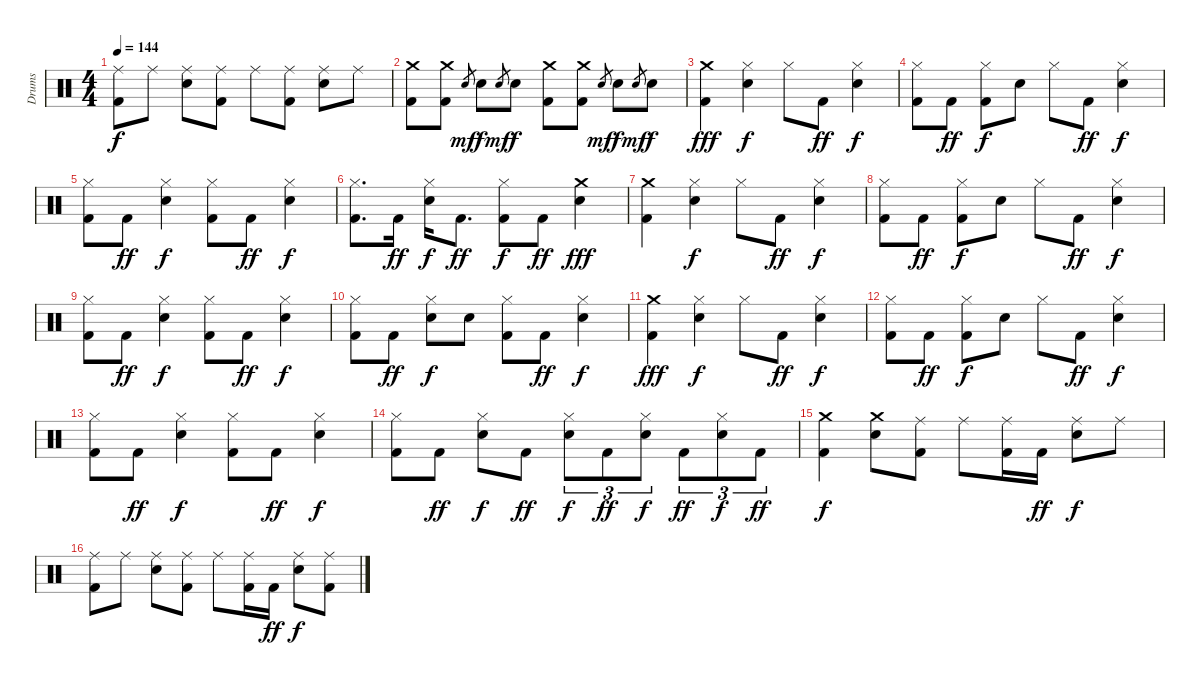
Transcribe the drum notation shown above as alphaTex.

\bracketExtendMode groupsimilarinstruments
\otherSystemsTrackNameOrientation horizontal
\track ("Drumkit" "Drums") {instrument percussion}
\staff {score}
\articulation defaults
\ts (4 4)
\tempo 144
\clef neutral
\ks c
("Ride (middle)" "Kick (hit) 2").8{dy f beam Down} "Ride (middle)".8{beam Down} ("Ride (middle)" "Snare (hit) 2").8{beam Down} ("Ride (middle)" "Kick (hit) 2").8{beam Down} "Ride (middle)".8{beam Down} ("Ride (middle)" "Kick (hit) 2").8{beam Down} ("Ride (middle)" "Snare (hit) 2").8{beam Down} "Ride (middle)".8{beam Down} |
("Crash medium (hit)" "Kick (hit) 2").8{beam Down} ("Crash medium (hit)" "Kick (hit) 2").8{beam Down} "Snare (hit) 2".8{gr dy mf beam Up} "Snare (hit) 2".8{dy f beam Down} "Snare (hit) 2".8{gr dy mf beam Up} "Snare (hit) 2".8{dy f beam Down} ("Crash medium (hit)" "Kick (hit) 2").8{beam Down} ("Crash medium (hit)" "Kick (hit) 2").8{beam Down} "Snare (hit) 2".8{gr dy mf beam Up} "Snare (hit) 2".8{dy f beam Down} "Snare (hit) 2".8{gr dy mf beam Up} "Snare (hit) 2".8{dy f beam Down} |
("Crash medium (hit)" "Kick (hit) 2").4{dy fff beam Down} ("Hi-Hat (closed)" "Snare (hit) 2").4{dy f beam Down} "Hi-Hat (closed)".8{beam Down} "Kick (hit) 2".8{dy ff beam Down} ("Hi-Hat (closed)" "Snare (hit) 2").4{dy f beam Down} |
("Hi-Hat (closed)" "Kick (hit) 2").8{beam Down} "Kick (hit) 2".8{dy ff beam Down} ("Hi-Hat (closed)" "Kick (hit) 2").8{dy f beam Down} "Snare (hit) 2".8{beam Down} "Hi-Hat (closed)".8{beam Down} "Kick (hit) 2".8{dy ff beam Down} ("Hi-Hat (closed)" "Snare (hit) 2").4{dy f beam Down} |
("Hi-Hat (closed)" "Kick (hit) 2").8{beam Down} "Kick (hit) 2".8{dy ff beam Down} ("Hi-Hat (closed)" "Snare (hit) 2").4{dy f beam Down} ("Hi-Hat (closed)" "Kick (hit) 2").8{beam Down} "Kick (hit) 2".8{dy ff beam Down} ("Hi-Hat (closed)" "Snare (hit) 2").4{dy f beam Down} |
("Hi-Hat (closed)" "Kick (hit) 2").8{d beam Down} "Kick (hit) 2".16{dy ff beam Down} ("Hi-Hat (closed)" "Snare (hit) 2").16{dy f beam Down} "Kick (hit) 2".8{d dy ff beam Down} ("Hi-Hat (closed)" "Kick (hit) 2").8{dy f beam Down} "Kick (hit) 2".8{dy ff beam Down} ("Crash medium (hit)" "Snare (hit) 2").4{dy fff beam Down} |
("Crash medium (hit)" "Kick (hit) 2").4{beam Down} ("Hi-Hat (closed)" "Snare (hit) 2").4{dy f beam Down} "Hi-Hat (closed)".8{beam Down} "Kick (hit) 2".8{dy ff beam Down} ("Hi-Hat (closed)" "Snare (hit) 2").4{dy f beam Down} |
("Hi-Hat (closed)" "Kick (hit) 2").8{beam Down} "Kick (hit) 2".8{dy ff beam Down} ("Hi-Hat (closed)" "Kick (hit) 2").8{dy f beam Down} "Snare (hit) 2".8{beam Down} "Hi-Hat (closed)".8{beam Down} "Kick (hit) 2".8{dy ff beam Down} ("Hi-Hat (closed)" "Snare (hit) 2").4{dy f beam Down} |
("Hi-Hat (closed)" "Kick (hit) 2").8{beam Down} "Kick (hit) 2".8{dy ff beam Down} ("Hi-Hat (closed)" "Snare (hit) 2").4{dy f beam Down} ("Hi-Hat (closed)" "Kick (hit) 2").8{beam Down} "Kick (hit) 2".8{dy ff beam Down} ("Hi-Hat (closed)" "Snare (hit) 2").4{dy f beam Down} |
("Hi-Hat (closed)" "Kick (hit) 2").8{beam Down} "Kick (hit) 2".8{dy ff beam Down} ("Hi-Hat (closed)" "Snare (hit) 2").8{dy f beam Down} "Snare (hit) 2".8{beam Down} ("Hi-Hat (closed)" "Kick (hit) 2").8{beam Down} "Kick (hit) 2".8{dy ff beam Down} ("Hi-Hat (closed)" "Snare (hit) 2").4{dy f beam Down} |
("Crash medium (hit)" "Kick (hit) 2").4{dy fff beam Down} ("Hi-Hat (closed)" "Snare (hit) 2").4{dy f beam Down} "Hi-Hat (closed)".8{beam Down} "Kick (hit) 2".8{dy ff beam Down} ("Hi-Hat (closed)" "Snare (hit) 2").4{dy f beam Down} |
("Hi-Hat (closed)" "Kick (hit) 2").8{beam Down} "Kick (hit) 2".8{dy ff beam Down} ("Hi-Hat (closed)" "Kick (hit) 2").8{dy f beam Down} "Snare (hit) 2".8{beam Down} "Hi-Hat (closed)".8{beam Down} "Kick (hit) 2".8{dy ff beam Down} ("Hi-Hat (closed)" "Snare (hit) 2").4{dy f beam Down} |
("Hi-Hat (closed)" "Kick (hit) 2").8{beam Down} "Kick (hit) 2".8{dy ff beam Down} ("Hi-Hat (closed)" "Snare (hit) 2").4{dy f beam Down} ("Hi-Hat (closed)" "Kick (hit) 2").8{beam Down} "Kick (hit) 2".8{dy ff beam Down} ("Hi-Hat (closed)" "Snare (hit) 2").4{dy f beam Down} |
("Hi-Hat (closed)" "Kick (hit) 2").8{beam Down} "Kick (hit) 2".8{dy ff beam Down} ("Hi-Hat (closed)" "Snare (hit) 2").8{dy f beam Down} "Kick (hit) 2".8{dy ff beam Down} ("Hi-Hat (closed)" "Snare (hit) 2").8{tu (3 2) dy f beam Down} "Kick (hit) 2".8{tu (3 2) dy ff beam Down} ("Hi-Hat (closed)" "Snare (hit) 2").8{tu (3 2) dy f beam Down} "Kick (hit) 2".8{tu (3 2) dy ff beam Down} ("Hi-Hat (closed)" "Snare (hit) 2").8{tu (3 2) dy f beam Down} "Kick (hit) 2".8{tu (3 2) dy ff beam Down} |
("Crash medium (hit)" "Kick (hit) 2").4{dy f beam Down} ("Crash medium (hit)" "Snare (hit) 2").8{beam Down} ("Ride (middle)" "Kick (hit) 2").8{beam Down} "Ride (middle)".8{beam Down} ("Ride (middle)" "Kick (hit) 2").16{beam Down} "Kick (hit) 2".16{dy ff beam Down} ("Ride (middle)" "Snare (hit) 2").8{dy f beam Down} "Ride (middle)".8{beam Down} |
("Ride (middle)" "Kick (hit) 2").8{beam Down} "Ride (middle)".8{beam Down} ("Ride (middle)" "Snare (hit) 2").8{beam Down} ("Ride (middle)" "Kick (hit) 2").8{beam Down} "Ride (middle)".8{beam Down} ("Ride (middle)" "Kick (hit) 2").16{beam Down} "Kick (hit) 2".16{dy ff beam Down} ("Ride (middle)" "Snare (hit) 2").8{dy f beam Down} ("Ride (middle)" "Kick (hit) 2").8{beam Down}
